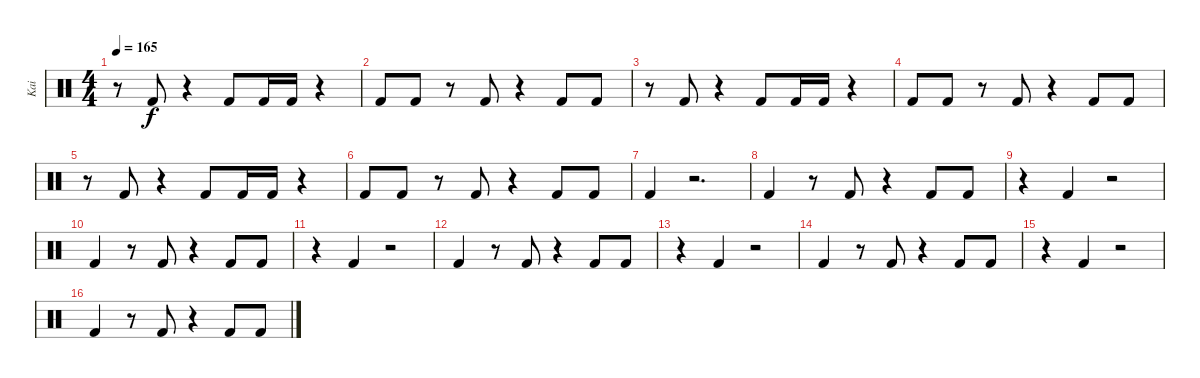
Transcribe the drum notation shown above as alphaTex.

\track ("Kai" "Kai") {instrument percussion}
\staff {score}
\articulation defaults
\ts (4 4)
\tempo 165
\clef neutral
\ks c
r.8{dy f} "Kick (hit) 2".8 r.4 "Kick (hit) 2".8 "Kick (hit) 2".16 "Kick (hit) 2".16 r.4 |
"Kick (hit) 2".8 "Kick (hit) 2".8 r.8 "Kick (hit) 2".8 r.4 "Kick (hit) 2".8 "Kick (hit) 2".8 |
r.8 "Kick (hit) 2".8 r.4 "Kick (hit) 2".8 "Kick (hit) 2".16 "Kick (hit) 2".16 r.4 |
"Kick (hit) 2".8 "Kick (hit) 2".8 r.8 "Kick (hit) 2".8 r.4 "Kick (hit) 2".8 "Kick (hit) 2".8 |
r.8 "Kick (hit) 2".8 r.4 "Kick (hit) 2".8 "Kick (hit) 2".16 "Kick (hit) 2".16 r.4 |
"Kick (hit) 2".8 "Kick (hit) 2".8 r.8 "Kick (hit) 2".8 r.4 "Kick (hit) 2".8 "Kick (hit) 2".8 |
"Kick (hit) 2".4 r.2{d} |
"Kick (hit) 2".4 r.8 "Kick (hit) 2".8 r.4 "Kick (hit) 2".8 "Kick (hit) 2".8 |
r.4 "Kick (hit) 2".4 r.2 |
"Kick (hit) 2".4 r.8 "Kick (hit) 2".8 r.4 "Kick (hit) 2".8 "Kick (hit) 2".8 |
r.4 "Kick (hit) 2".4 r.2 |
"Kick (hit) 2".4 r.8 "Kick (hit) 2".8 r.4 "Kick (hit) 2".8 "Kick (hit) 2".8 |
r.4 "Kick (hit) 2".4 r.2 |
"Kick (hit) 2".4 r.8 "Kick (hit) 2".8 r.4 "Kick (hit) 2".8 "Kick (hit) 2".8 |
r.4 "Kick (hit) 2".4 r.2 |
"Kick (hit) 2".4 r.8 "Kick (hit) 2".8 r.4 "Kick (hit) 2".8 "Kick (hit) 2".8
